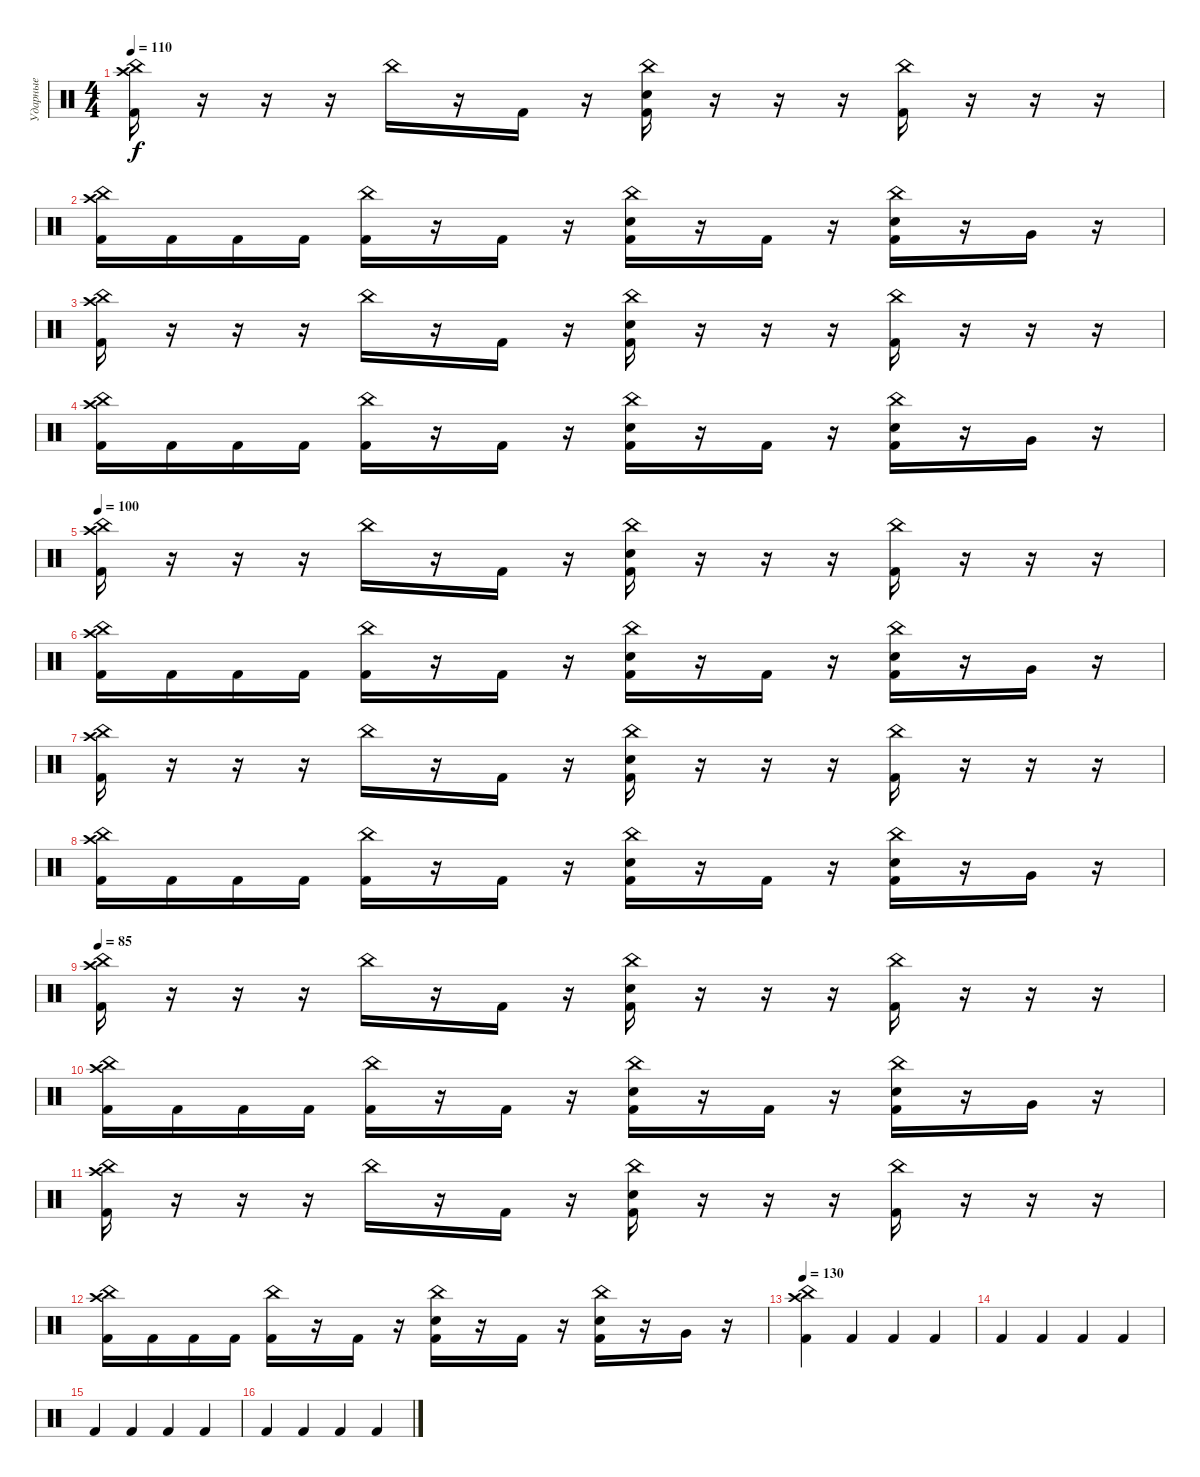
\track ("Ударные" "Ударные") {instrument percussion}
\staff {score}
\articulation defaults
\ts (4 4)
\tempo 110
\clef neutral
\ks c
("China (hit)" "Crash high (hit)" "Kick (hit) 2").16{dy f} r.16 r.16 r.16 "China (hit)".16 r.16 "Kick (hit) 2".16 r.16 ("China (hit)" "Snare (hit) 2" "Kick (hit) 2").16 r.16 r.16 r.16 ("China (hit)" "Kick (hit) 2").16 r.16 r.16 r.16 |
("China (hit)" "Crash high (hit)" "Kick (hit) 2").16 "Kick (hit) 2".16 "Kick (hit) 2".16 "Kick (hit) 2".16 ("China (hit)" "Kick (hit) 2").16 r.16 "Kick (hit) 2".16 r.16 ("China (hit)" "Snare (hit) 2" "Kick (hit) 2").16 r.16 "Kick (hit) 2".16 r.16 ("China (hit)" "Snare (hit) 2" "Kick (hit) 2").16 r.16 "Very Low Tom (hit)".16 r.16 |
("China (hit)" "Crash high (hit)" "Kick (hit) 2").16 r.16 r.16 r.16 "China (hit)".16 r.16 "Kick (hit) 2".16 r.16 ("China (hit)" "Snare (hit) 2" "Kick (hit) 2").16 r.16 r.16 r.16 ("China (hit)" "Kick (hit) 2").16 r.16 r.16 r.16 |
("China (hit)" "Crash high (hit)" "Kick (hit) 2").16 "Kick (hit) 2".16 "Kick (hit) 2".16 "Kick (hit) 2".16 ("China (hit)" "Kick (hit) 2").16 r.16 "Kick (hit) 2".16 r.16 ("China (hit)" "Snare (hit) 2" "Kick (hit) 2").16 r.16 "Kick (hit) 2".16 r.16 ("China (hit)" "Snare (hit) 2" "Kick (hit) 2").16 r.16 "Very Low Tom (hit)".16 r.16 |
\tempo 100
("China (hit)" "Crash high (hit)" "Kick (hit) 2").16 r.16 r.16 r.16 "China (hit)".16 r.16 "Kick (hit) 2".16 r.16 ("China (hit)" "Snare (hit) 2" "Kick (hit) 2").16 r.16 r.16 r.16 ("China (hit)" "Kick (hit) 2").16 r.16 r.16 r.16 |
("China (hit)" "Crash high (hit)" "Kick (hit) 2").16 "Kick (hit) 2".16 "Kick (hit) 2".16 "Kick (hit) 2".16 ("China (hit)" "Kick (hit) 2").16 r.16 "Kick (hit) 2".16 r.16 ("China (hit)" "Snare (hit) 2" "Kick (hit) 2").16 r.16 "Kick (hit) 2".16 r.16 ("China (hit)" "Snare (hit) 2" "Kick (hit) 2").16 r.16 "Very Low Tom (hit)".16 r.16 |
("China (hit)" "Crash high (hit)" "Kick (hit) 2").16 r.16 r.16 r.16 "China (hit)".16 r.16 "Kick (hit) 2".16 r.16 ("China (hit)" "Snare (hit) 2" "Kick (hit) 2").16 r.16 r.16 r.16 ("China (hit)" "Kick (hit) 2").16 r.16 r.16 r.16 |
("China (hit)" "Crash high (hit)" "Kick (hit) 2").16 "Kick (hit) 2".16 "Kick (hit) 2".16 "Kick (hit) 2".16 ("China (hit)" "Kick (hit) 2").16 r.16 "Kick (hit) 2".16 r.16 ("China (hit)" "Snare (hit) 2" "Kick (hit) 2").16 r.16 "Kick (hit) 2".16 r.16 ("China (hit)" "Snare (hit) 2" "Kick (hit) 2").16 r.16 "Very Low Tom (hit)".16 r.16 |
\tempo 85
("China (hit)" "Crash high (hit)" "Kick (hit) 2").16 r.16 r.16 r.16 "China (hit)".16 r.16 "Kick (hit) 2".16 r.16 ("China (hit)" "Snare (hit) 2" "Kick (hit) 2").16 r.16 r.16 r.16 ("China (hit)" "Kick (hit) 2").16 r.16 r.16 r.16 |
("China (hit)" "Crash high (hit)" "Kick (hit) 2").16 "Kick (hit) 2".16 "Kick (hit) 2".16 "Kick (hit) 2".16 ("China (hit)" "Kick (hit) 2").16 r.16 "Kick (hit) 2".16 r.16 ("China (hit)" "Snare (hit) 2" "Kick (hit) 2").16 r.16 "Kick (hit) 2".16 r.16 ("China (hit)" "Snare (hit) 2" "Kick (hit) 2").16 r.16 "Very Low Tom (hit)".16 r.16 |
("China (hit)" "Crash high (hit)" "Kick (hit) 2").16 r.16 r.16 r.16 "China (hit)".16 r.16 "Kick (hit) 2".16 r.16 ("China (hit)" "Snare (hit) 2" "Kick (hit) 2").16 r.16 r.16 r.16 ("China (hit)" "Kick (hit) 2").16 r.16 r.16 r.16 |
("China (hit)" "Crash high (hit)" "Kick (hit) 2").16 "Kick (hit) 2".16 "Kick (hit) 2".16 "Kick (hit) 2".16 ("China (hit)" "Kick (hit) 2").16 r.16 "Kick (hit) 2".16 r.16 ("China (hit)" "Snare (hit) 2" "Kick (hit) 2").16 r.16 "Kick (hit) 2".16 r.16 ("China (hit)" "Snare (hit) 2" "Kick (hit) 2").16 r.16 "Very Low Tom (hit)".16 r.16 |
\tempo 130
("Crash high (hit)" "China (hit)" "Kick (hit) 2").4 "Kick (hit) 2".4 "Kick (hit) 2".4 "Kick (hit) 2".4 |
"Kick (hit) 2".4 "Kick (hit) 2".4 "Kick (hit) 2".4 "Kick (hit) 2".4 |
"Kick (hit) 2".4 "Kick (hit) 2".4 "Kick (hit) 2".4 "Kick (hit) 2".4 |
"Kick (hit) 2".4 "Kick (hit) 2".4 "Kick (hit) 2".4 "Kick (hit) 2".4
